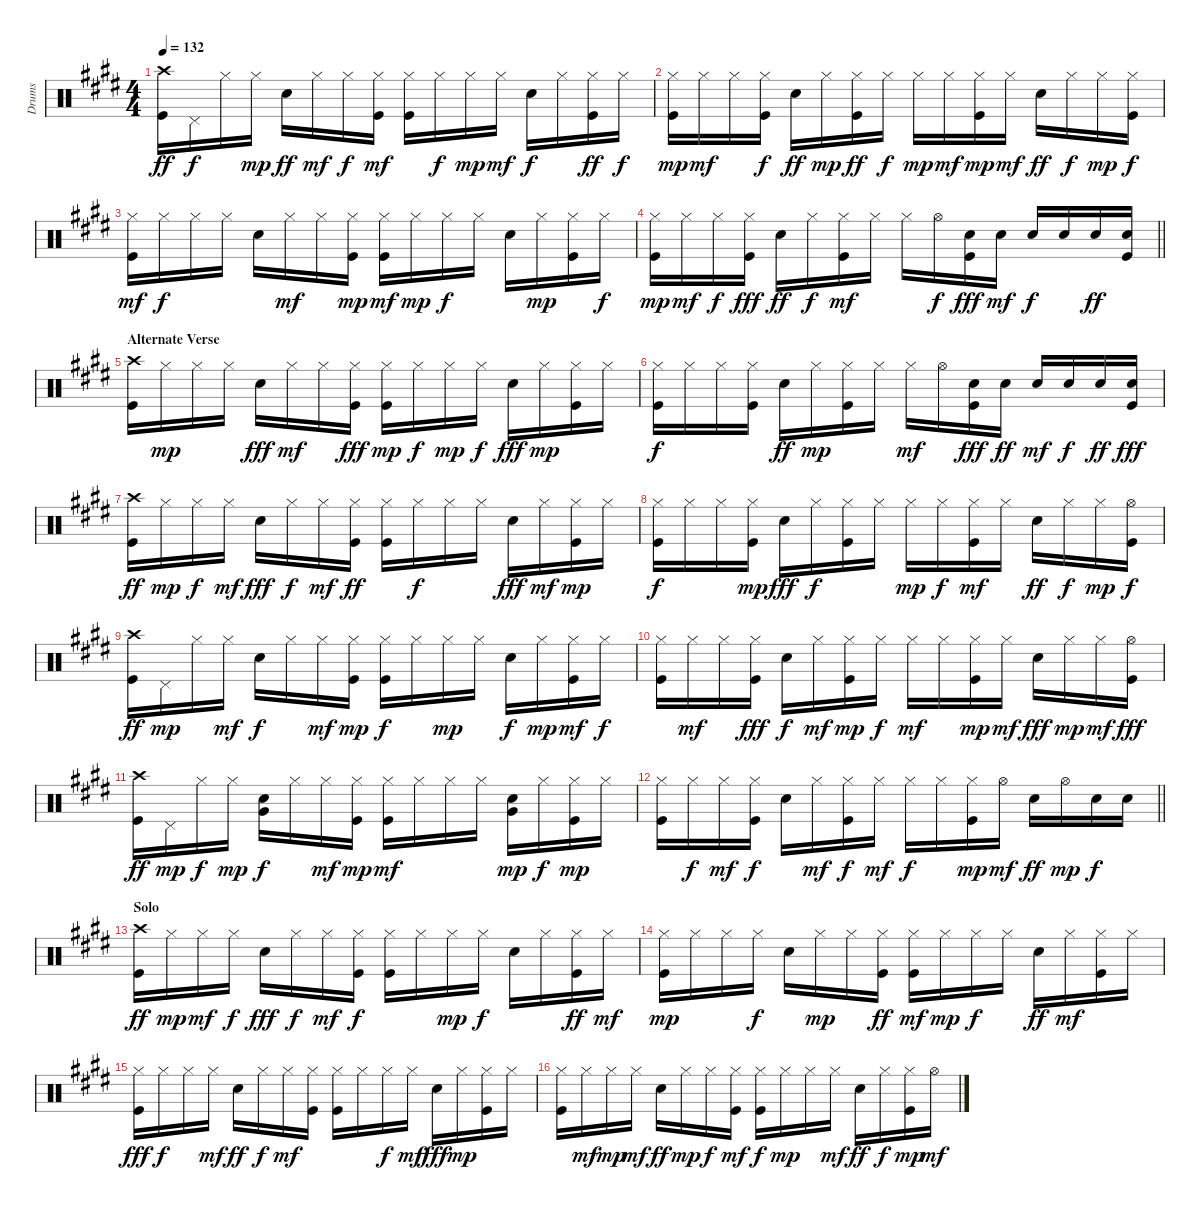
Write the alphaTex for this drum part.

\track ("Drums" "Drums") {instrument percussion}
\staff {score}
\articulation defaults
\ts (4 4)
\tempo 132
\clef neutral
\ks e
("Kick (hit)" "Crash high (hit)").16{dy ff} "Pedal Hi-Hat (hit)".16{dy f} "Hi-Hat (closed)".16 "Hi-Hat (closed)".16{dy mp} "Snare (hit) 2".16{dy ff} "Hi-Hat (closed)".16{dy mf} "Hi-Hat (closed)".16{dy f} ("Kick (hit)" "Hi-Hat (closed)").16{dy mf} ("Kick (hit)" "Hi-Hat (closed)").16 "Hi-Hat (closed)".16{dy f} "Hi-Hat (closed)".16{dy mp} "Hi-Hat (closed)".16{dy mf} "Snare (hit) 2".16{dy f} "Hi-Hat (closed)".16 ("Kick (hit)" "Hi-Hat (closed)").16{dy ff} "Hi-Hat (closed)".16{dy f} |
("Kick (hit)" "Hi-Hat (closed)").16{dy mp} "Hi-Hat (closed)".16{dy mf} "Hi-Hat (closed)".16 ("Kick (hit)" "Hi-Hat (closed)").16{dy f} "Snare (hit) 2".16{dy ff} "Hi-Hat (closed)".16{dy mp} ("Kick (hit)" "Hi-Hat (closed)").16{dy ff} "Hi-Hat (closed)".16{dy f} "Hi-Hat (closed)".16{dy mp} "Hi-Hat (closed)".16{dy mf} ("Kick (hit)" "Hi-Hat (closed)").16{dy mp} "Hi-Hat (closed)".16{dy mf} "Snare (hit) 2".16{dy ff} "Hi-Hat (closed)".16{dy f} "Hi-Hat (closed)".16{dy mp} ("Kick (hit)" "Hi-Hat (closed)").16{dy f} |
("Kick (hit)" "Hi-Hat (closed)").16{dy mf} "Hi-Hat (closed)".16{dy f} "Hi-Hat (closed)".16 "Hi-Hat (closed)".16 "Snare (hit) 2".16 "Hi-Hat (closed)".16{dy mf} "Hi-Hat (closed)".16 ("Kick (hit)" "Hi-Hat (closed)").16{dy mp} ("Kick (hit)" "Hi-Hat (closed)").16{dy mf} "Hi-Hat (closed)".16{dy mp} "Hi-Hat (closed)".16{dy f} "Hi-Hat (closed)".16 "Snare (hit) 2".16 "Hi-Hat (closed)".16{dy mp} ("Kick (hit)" "Hi-Hat (closed)").16 "Hi-Hat (closed)".16{dy f} |
\barLineRight lightlight
("Kick (hit)" "Hi-Hat (closed)").16{dy mp} "Hi-Hat (closed)".16{dy mf} "Hi-Hat (closed)".16{dy f} ("Kick (hit)" "Hi-Hat (closed)").16{dy fff} "Snare (hit) 2".16{dy ff} "Hi-Hat (closed)".16{dy f} ("Kick (hit)" "Hi-Hat (closed)").16{dy mf} "Hi-Hat (closed)".16 "Hi-Hat (closed)".16 "Hi-Hat (open)".16{dy f} ("Kick (hit)" "Snare (hit) 2").16{dy fff} "Snare (hit) 2".16{dy mf} "Snare (hit) 2".16{dy f} "Snare (hit) 2".16 "Snare (hit) 2".16{dy ff} ("Kick (hit)" "Snare (hit) 2").16 |
\section ("" "Alternate Verse")
("Kick (hit)" "Crash high (hit)").16 "Hi-Hat (closed)".16{dy mp} "Hi-Hat (closed)".16 "Hi-Hat (closed)".16 "Snare (hit) 2".16{dy fff} "Hi-Hat (closed)".16{dy mf} "Hi-Hat (closed)".16 ("Kick (hit)" "Hi-Hat (closed)").16{dy fff} ("Kick (hit)" "Hi-Hat (closed)").16{dy mp} "Hi-Hat (closed)".16{dy f} "Hi-Hat (closed)".16{dy mp} "Hi-Hat (closed)".16{dy f} "Snare (hit) 2".16{dy fff} "Hi-Hat (closed)".16{dy mp} ("Kick (hit)" "Hi-Hat (closed)").16 "Hi-Hat (closed)".16 |
("Kick (hit)" "Hi-Hat (closed)").16{dy f} "Hi-Hat (closed)".16 "Hi-Hat (closed)".16 ("Kick (hit)" "Hi-Hat (closed)").16 "Snare (hit) 2".16{dy ff} "Hi-Hat (closed)".16{dy mp} ("Kick (hit)" "Hi-Hat (closed)").16 "Hi-Hat (closed)".16 "Hi-Hat (closed)".16{dy mf} "Hi-Hat (open)".16 ("Kick (hit)" "Snare (hit) 2").16{dy fff} "Snare (hit) 2".16{dy ff} "Snare (hit) 2".16{dy mf} "Snare (hit) 2".16{dy f} "Snare (hit) 2".16{dy ff} ("Kick (hit)" "Snare (hit) 2").16{dy fff} |
("Kick (hit)" "Crash high (hit)").16{dy ff} "Hi-Hat (closed)".16{dy mp} "Hi-Hat (closed)".16{dy f} "Hi-Hat (closed)".16{dy mf} "Snare (hit) 2".16{dy fff} "Hi-Hat (closed)".16{dy f} "Hi-Hat (closed)".16{dy mf} ("Kick (hit)" "Hi-Hat (closed)").16{dy ff} ("Kick (hit)" "Hi-Hat (closed)").16 "Hi-Hat (closed)".16{dy f} "Hi-Hat (closed)".16 "Hi-Hat (closed)".16 "Snare (hit) 2".16{dy fff} "Hi-Hat (closed)".16{dy mf} ("Kick (hit)" "Hi-Hat (closed)").16{dy mp} "Hi-Hat (closed)".16 |
("Kick (hit)" "Hi-Hat (closed)").16{dy f} "Hi-Hat (closed)".16 "Hi-Hat (closed)".16 ("Kick (hit)" "Hi-Hat (closed)").16{dy mp} "Snare (hit) 2".16{dy fff} "Hi-Hat (closed)".16{dy f} ("Kick (hit)" "Hi-Hat (closed)").16 "Hi-Hat (closed)".16 "Hi-Hat (closed)".16{dy mp} "Hi-Hat (closed)".16{dy f} ("Kick (hit)" "Hi-Hat (closed)").16{dy mf} "Hi-Hat (closed)".16 "Snare (hit) 2".16{dy ff} "Hi-Hat (closed)".16{dy f} "Hi-Hat (closed)".16{dy mp} ("Kick (hit)" "Hi-Hat (open)").16{dy f} |
("Kick (hit)" "Crash high (hit)").16{dy ff} "Pedal Hi-Hat (hit)".16{dy mp} "Hi-Hat (closed)".16 "Hi-Hat (closed)".16{dy mf} "Snare (hit) 2".16{dy f} "Hi-Hat (closed)".16 "Hi-Hat (closed)".16{dy mf} ("Kick (hit)" "Hi-Hat (closed)").16{dy mp} ("Kick (hit)" "Hi-Hat (closed)").16{dy f} "Hi-Hat (closed)".16 "Hi-Hat (closed)".16{dy mp} "Hi-Hat (closed)".16 "Snare (hit) 2".16{dy f} "Hi-Hat (closed)".16{dy mp} ("Kick (hit)" "Hi-Hat (closed)").16{dy mf} "Hi-Hat (closed)".16{dy f} |
("Kick (hit)" "Hi-Hat (closed)").16 "Hi-Hat (closed)".16{dy mf} "Hi-Hat (closed)".16 ("Kick (hit)" "Hi-Hat (closed)").16{dy fff} "Snare (hit) 2".16{dy f} "Hi-Hat (closed)".16{dy mf} ("Kick (hit)" "Hi-Hat (closed)").16{dy mp} "Hi-Hat (closed)".16{dy f} "Hi-Hat (closed)".16{dy mf} "Hi-Hat (closed)".16 ("Kick (hit)" "Hi-Hat (closed)").16{dy mp} "Hi-Hat (closed)".16{dy mf} "Snare (hit) 2".16{dy fff} "Hi-Hat (closed)".16{dy mp} "Hi-Hat (closed)".16{dy mf} ("Kick (hit)" "Hi-Hat (open)").16{dy fff} |
("Kick (hit)" "Crash high (hit)").16{dy ff} "Pedal Hi-Hat (hit)".16{dy mp} "Hi-Hat (closed)".16{dy f} "Hi-Hat (closed)".16{dy mp} ("Snare (hit) 2" "Very Low Tom (hit)").16{dy f} "Hi-Hat (closed)".16 "Hi-Hat (closed)".16{dy mf} ("Kick (hit)" "Hi-Hat (closed)").16{dy mp} ("Kick (hit)" "Hi-Hat (closed)").16{dy mf} "Hi-Hat (closed)".16 "Hi-Hat (closed)".16 "Hi-Hat (closed)".16 ("Snare (hit) 2" "Very Low Tom (hit)").16{dy mp} "Hi-Hat (closed)".16{dy f} ("Kick (hit)" "Hi-Hat (closed)").16{dy mp} "Hi-Hat (closed)".16 |
\barLineRight lightlight
("Kick (hit)" "Hi-Hat (closed)").16 "Hi-Hat (closed)".16{dy f} "Hi-Hat (closed)".16{dy mf} ("Kick (hit)" "Hi-Hat (closed)").16{dy f} "Snare (hit) 2".16 "Hi-Hat (closed)".16{dy mf} ("Kick (hit)" "Hi-Hat (closed)").16{dy f} "Hi-Hat (closed)".16{dy mf} "Hi-Hat (closed)".16{dy f} "Hi-Hat (closed)".16 ("Kick (hit)" "Hi-Hat (closed)").16{dy mp} "Hi-Hat (open)".16{dy mf} "Snare (hit) 2".16{dy ff} "Hi-Hat (open)".16{dy mp} "Snare (hit) 2".16{dy f} "Snare (hit) 2".16 |
\section ("" "Solo")
("Kick (hit)" "Crash high (hit)").16{dy ff} "Hi-Hat (closed)".16{dy mp} "Hi-Hat (closed)".16{dy mf} "Hi-Hat (closed)".16{dy f} "Snare (hit) 2".16{dy fff} "Hi-Hat (closed)".16{dy f} "Hi-Hat (closed)".16{dy mf} ("Kick (hit)" "Hi-Hat (closed)").16{dy f} ("Kick (hit)" "Hi-Hat (closed)").16 "Hi-Hat (closed)".16 "Hi-Hat (closed)".16{dy mp} "Hi-Hat (closed)".16{dy f} "Snare (hit) 2".16 "Hi-Hat (closed)".16 ("Kick (hit)" "Hi-Hat (closed)").16{dy ff} "Hi-Hat (closed)".16{dy mf} |
("Kick (hit)" "Hi-Hat (closed)").16{dy mp} "Hi-Hat (closed)".16 "Hi-Hat (closed)".16 "Hi-Hat (closed)".16{dy f} "Snare (hit) 2".16 "Hi-Hat (closed)".16{dy mp} "Hi-Hat (closed)".16 ("Kick (hit)" "Hi-Hat (closed)").16{dy ff} ("Kick (hit)" "Hi-Hat (closed)").16{dy mf} "Hi-Hat (closed)".16{dy mp} "Hi-Hat (closed)".16{dy f} "Hi-Hat (closed)".16 "Snare (hit) 2".16{dy ff} "Hi-Hat (closed)".16{dy mf} ("Kick (hit)" "Hi-Hat (closed)").16 "Hi-Hat (closed)".16 |
("Kick (hit)" "Hi-Hat (closed)").16{dy fff} "Hi-Hat (closed)".16{dy f} "Hi-Hat (closed)".16 "Hi-Hat (closed)".16{dy mf} "Snare (hit) 2".16{dy ff} "Hi-Hat (closed)".16{dy f} "Hi-Hat (closed)".16{dy mf} ("Kick (hit)" "Hi-Hat (closed)").16 ("Kick (hit)" "Hi-Hat (closed)").16 "Hi-Hat (closed)".16 "Hi-Hat (closed)".16{dy f} "Hi-Hat (closed)".16{dy mf} "Snare (hit) 2".16{dy fff} "Hi-Hat (closed)".16{dy mp} ("Kick (hit)" "Hi-Hat (closed)").16 "Hi-Hat (closed)".16 |
("Kick (hit)" "Hi-Hat (closed)").16 "Hi-Hat (closed)".16{dy mf} "Hi-Hat (closed)".16{dy mp} "Hi-Hat (closed)".16{dy mf} "Snare (hit) 2".16{dy ff} "Hi-Hat (closed)".16{dy mp} "Hi-Hat (closed)".16{dy f} ("Kick (hit)" "Hi-Hat (closed)").16{dy mf} ("Kick (hit)" "Hi-Hat (closed)").16{dy f} "Hi-Hat (closed)".16{dy mp} "Hi-Hat (closed)".16 "Hi-Hat (closed)".16{dy mf} "Snare (hit) 2".16{dy ff} "Hi-Hat (closed)".16{dy f} ("Kick (hit)" "Hi-Hat (closed)").16{dy mp} "Hi-Hat (open)".16{dy mf}
